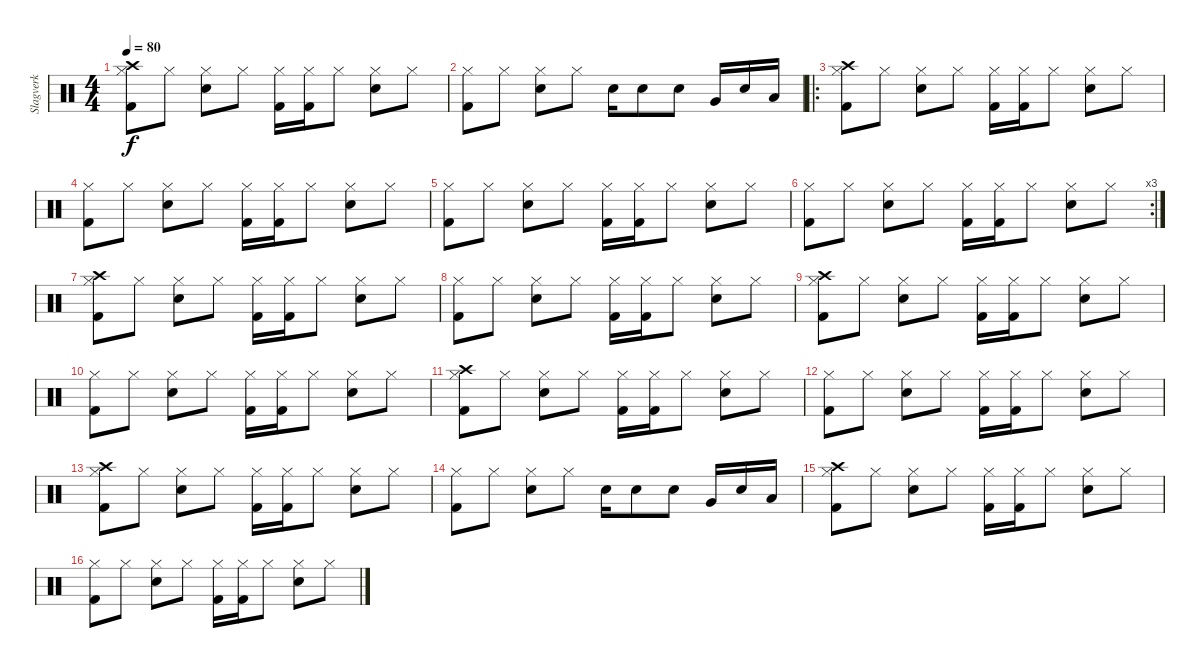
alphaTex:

\track ("Slagverk" "Slagverk") {instrument percussion}
\staff {score}
\articulation defaults
\ts (4 4)
\tempo 80
\clef neutral
\ks c
("Crash high (hit)" "Hi-Hat (closed)" "Kick (hit) 2").8{dy f} "Hi-Hat (closed)".8 ("Hi-Hat (closed)" "Electric Snare (hit)").8 "Hi-Hat (closed)".8 ("Hi-Hat (closed)" "Kick (hit) 2").16 ("Hi-Hat (closed)" "Kick (hit) 2").16 "Hi-Hat (closed)".8 ("Hi-Hat (closed)" "Electric Snare (hit)").8 "Hi-Hat (closed)".8 |
("Hi-Hat (closed)" "Kick (hit) 2").8 "Hi-Hat (closed)".8 ("Hi-Hat (closed)" "Electric Snare (hit)").8 "Hi-Hat (closed)".8 "Electric Snare (hit)".16 "Electric Snare (hit)".8 "Electric Snare (hit)".8 "Very Low Tom (hit)".16 "Electric Snare (hit)".16 "Low Floor Tom (hit)".16 |
\ro
("Crash high (hit)" "Hi-Hat (closed)" "Kick (hit) 2").8 "Hi-Hat (closed)".8 ("Hi-Hat (closed)" "Electric Snare (hit)").8 "Hi-Hat (closed)".8 ("Hi-Hat (closed)" "Kick (hit) 2").16 ("Hi-Hat (closed)" "Kick (hit) 2").16 "Hi-Hat (closed)".8 ("Hi-Hat (closed)" "Electric Snare (hit)").8 "Hi-Hat (closed)".8 |
("Hi-Hat (closed)" "Kick (hit) 2").8 "Hi-Hat (closed)".8 ("Hi-Hat (closed)" "Electric Snare (hit)").8 "Hi-Hat (closed)".8 ("Hi-Hat (closed)" "Kick (hit) 2").16 ("Hi-Hat (closed)" "Kick (hit) 2").16 "Hi-Hat (closed)".8 ("Hi-Hat (closed)" "Electric Snare (hit)").8 "Hi-Hat (closed)".8 |
("Hi-Hat (closed)" "Kick (hit) 2").8 "Hi-Hat (closed)".8 ("Hi-Hat (closed)" "Electric Snare (hit)").8 "Hi-Hat (closed)".8 ("Hi-Hat (closed)" "Kick (hit) 2").16 ("Hi-Hat (closed)" "Kick (hit) 2").16 "Hi-Hat (closed)".8 ("Hi-Hat (closed)" "Electric Snare (hit)").8 "Hi-Hat (closed)".8 |
\rc 3
("Hi-Hat (closed)" "Kick (hit) 2").8 "Hi-Hat (closed)".8 ("Hi-Hat (closed)" "Electric Snare (hit)").8 "Hi-Hat (closed)".8 ("Hi-Hat (closed)" "Kick (hit) 2").16 ("Hi-Hat (closed)" "Kick (hit) 2").16 "Hi-Hat (closed)".8 ("Hi-Hat (closed)" "Electric Snare (hit)").8 "Hi-Hat (closed)".8 |
("Crash high (hit)" "Hi-Hat (closed)" "Kick (hit) 2").8 "Hi-Hat (closed)".8 ("Hi-Hat (closed)" "Electric Snare (hit)").8 "Hi-Hat (closed)".8 ("Hi-Hat (closed)" "Kick (hit) 2").16 ("Hi-Hat (closed)" "Kick (hit) 2").16 "Hi-Hat (closed)".8 ("Hi-Hat (closed)" "Electric Snare (hit)").8 "Hi-Hat (closed)".8 |
("Hi-Hat (closed)" "Kick (hit) 2").8 "Hi-Hat (closed)".8 ("Hi-Hat (closed)" "Electric Snare (hit)").8 "Hi-Hat (closed)".8 ("Hi-Hat (closed)" "Kick (hit) 2").16 ("Hi-Hat (closed)" "Kick (hit) 2").16 "Hi-Hat (closed)".8 ("Hi-Hat (closed)" "Electric Snare (hit)").8 "Hi-Hat (closed)".8 |
("Crash high (hit)" "Hi-Hat (closed)" "Kick (hit) 2").8 "Hi-Hat (closed)".8 ("Hi-Hat (closed)" "Electric Snare (hit)").8 "Hi-Hat (closed)".8 ("Hi-Hat (closed)" "Kick (hit) 2").16 ("Hi-Hat (closed)" "Kick (hit) 2").16 "Hi-Hat (closed)".8 ("Hi-Hat (closed)" "Electric Snare (hit)").8 "Hi-Hat (closed)".8 |
("Hi-Hat (closed)" "Kick (hit) 2").8 "Hi-Hat (closed)".8 ("Hi-Hat (closed)" "Electric Snare (hit)").8 "Hi-Hat (closed)".8 ("Hi-Hat (closed)" "Kick (hit) 2").16 ("Hi-Hat (closed)" "Kick (hit) 2").16 "Hi-Hat (closed)".8 ("Hi-Hat (closed)" "Electric Snare (hit)").8 "Hi-Hat (closed)".8 |
("Crash high (hit)" "Hi-Hat (closed)" "Kick (hit) 2").8 "Hi-Hat (closed)".8 ("Hi-Hat (closed)" "Electric Snare (hit)").8 "Hi-Hat (closed)".8 ("Hi-Hat (closed)" "Kick (hit) 2").16 ("Hi-Hat (closed)" "Kick (hit) 2").16 "Hi-Hat (closed)".8 ("Hi-Hat (closed)" "Electric Snare (hit)").8 "Hi-Hat (closed)".8 |
("Hi-Hat (closed)" "Kick (hit) 2").8 "Hi-Hat (closed)".8 ("Hi-Hat (closed)" "Electric Snare (hit)").8 "Hi-Hat (closed)".8 ("Hi-Hat (closed)" "Kick (hit) 2").16 ("Hi-Hat (closed)" "Kick (hit) 2").16 "Hi-Hat (closed)".8 ("Hi-Hat (closed)" "Electric Snare (hit)").8 "Hi-Hat (closed)".8 |
("Crash high (hit)" "Hi-Hat (closed)" "Kick (hit) 2").8 "Hi-Hat (closed)".8 ("Hi-Hat (closed)" "Electric Snare (hit)").8 "Hi-Hat (closed)".8 ("Hi-Hat (closed)" "Kick (hit) 2").16 ("Hi-Hat (closed)" "Kick (hit) 2").16 "Hi-Hat (closed)".8 ("Hi-Hat (closed)" "Electric Snare (hit)").8 "Hi-Hat (closed)".8 |
("Hi-Hat (closed)" "Kick (hit) 2").8 "Hi-Hat (closed)".8 ("Hi-Hat (closed)" "Electric Snare (hit)").8 "Hi-Hat (closed)".8 "Electric Snare (hit)".16 "Electric Snare (hit)".8 "Electric Snare (hit)".8 "Very Low Tom (hit)".16 "Electric Snare (hit)".16 "Low Floor Tom (hit)".16 |
("Crash high (hit)" "Hi-Hat (closed)" "Kick (hit) 2").8 "Hi-Hat (closed)".8 ("Hi-Hat (closed)" "Electric Snare (hit)").8 "Hi-Hat (closed)".8 ("Hi-Hat (closed)" "Kick (hit) 2").16 ("Hi-Hat (closed)" "Kick (hit) 2").16 "Hi-Hat (closed)".8 ("Hi-Hat (closed)" "Electric Snare (hit)").8 "Hi-Hat (closed)".8 |
("Hi-Hat (closed)" "Kick (hit) 2").8 "Hi-Hat (closed)".8 ("Hi-Hat (closed)" "Electric Snare (hit)").8 "Hi-Hat (closed)".8 ("Hi-Hat (closed)" "Kick (hit) 2").16 ("Hi-Hat (closed)" "Kick (hit) 2").16 "Hi-Hat (closed)".8 ("Hi-Hat (closed)" "Electric Snare (hit)").8 "Hi-Hat (closed)".8
